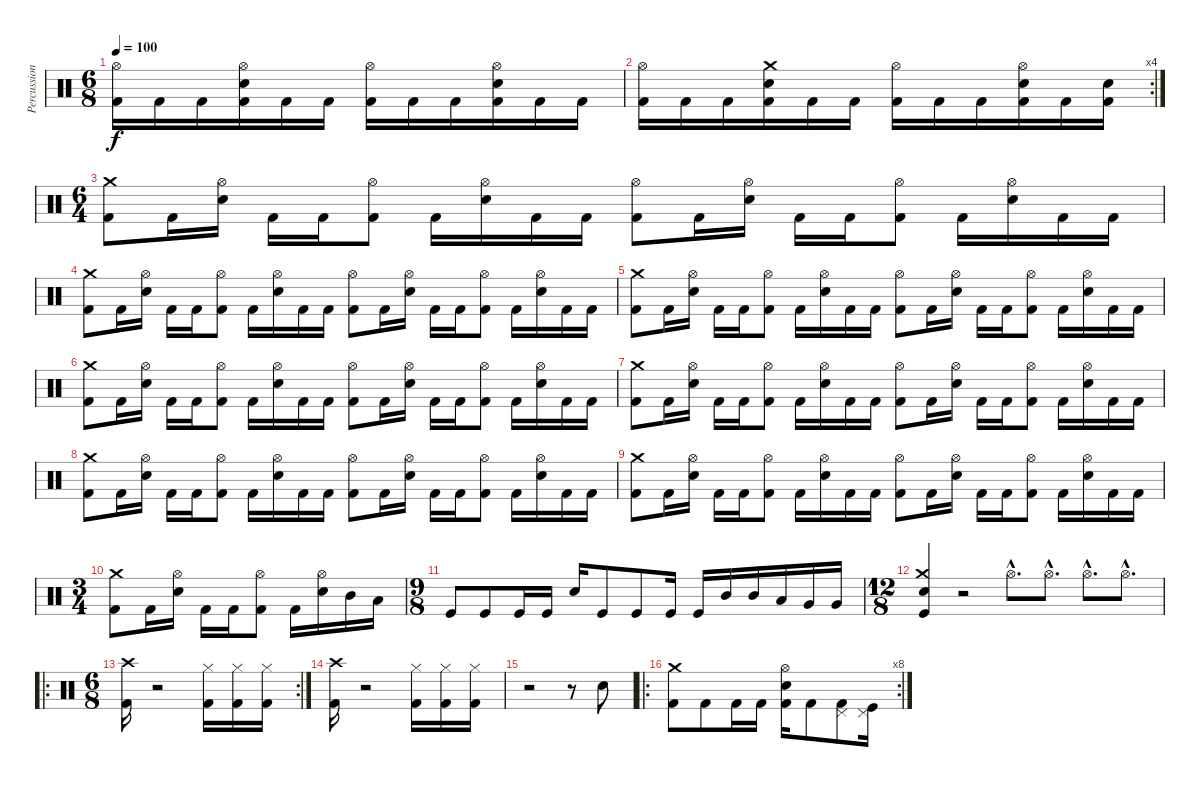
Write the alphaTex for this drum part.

\track ("Percussion" "Percussion") {instrument percussion}
\staff {score}
\articulation defaults
\ts (6 8)
\tempo 100
\clef neutral
\ks c
("Hi-Hat (open)" "Kick (hit) 2").16{dy f} "Kick (hit) 2".16 "Kick (hit) 2".16 ("Hi-Hat (open)" "Electric Snare (hit)" "Kick (hit) 2").16 "Kick (hit) 2".16 "Kick (hit) 2".16 ("Hi-Hat (open)" "Kick (hit) 2").16 "Kick (hit) 2".16 "Kick (hit) 2".16 ("Hi-Hat (open)" "Electric Snare (hit)" "Kick (hit) 2").16 "Kick (hit) 2".16 "Kick (hit) 2".16 |
\rc 4
("Hi-Hat (open)" "Kick (hit) 2").16 "Kick (hit) 2".16 "Kick (hit) 2".16 ("Crash medium (hit)" "Electric Snare (hit)" "Kick (hit) 2").16 "Kick (hit) 2".16 "Kick (hit) 2".16 ("Hi-Hat (open)" "Kick (hit) 2").16 "Kick (hit) 2".16 "Kick (hit) 2".16 ("Hi-Hat (open)" "Electric Snare (hit)" "Kick (hit) 2").16 "Kick (hit) 2".16 ("Electric Snare (hit)" "Kick (hit) 2").16 |
\ts (6 4)
("Crash medium (hit)" "Kick (hit) 2").8 "Kick (hit) 2".16 ("Hi-Hat (open)" "Electric Snare (hit)").16 "Kick (hit) 2".16 "Kick (hit) 2".16 ("Hi-Hat (open)" "Kick (hit) 2").8 "Kick (hit) 2".16 ("Hi-Hat (open)" "Electric Snare (hit)").16 "Kick (hit) 2".16 "Kick (hit) 2".16 ("Hi-Hat (open)" "Kick (hit) 2").8 "Kick (hit) 2".16 ("Hi-Hat (open)" "Electric Snare (hit)").16 "Kick (hit) 2".16 "Kick (hit) 2".16 ("Hi-Hat (open)" "Kick (hit) 2").8 "Kick (hit) 2".16 ("Hi-Hat (open)" "Electric Snare (hit)").16 "Kick (hit) 2".16 "Kick (hit) 2".16 |
("Crash medium (hit)" "Kick (hit) 2").8 "Kick (hit) 2".16 ("Hi-Hat (open)" "Electric Snare (hit)").16 "Kick (hit) 2".16 "Kick (hit) 2".16 ("Hi-Hat (open)" "Kick (hit) 2").8 "Kick (hit) 2".16 ("Hi-Hat (open)" "Electric Snare (hit)").16 "Kick (hit) 2".16 "Kick (hit) 2".16 ("Hi-Hat (open)" "Kick (hit) 2").8 "Kick (hit) 2".16 ("Hi-Hat (open)" "Electric Snare (hit)").16 "Kick (hit) 2".16 "Kick (hit) 2".16 ("Hi-Hat (open)" "Kick (hit) 2").8 "Kick (hit) 2".16 ("Hi-Hat (open)" "Electric Snare (hit)").16 "Kick (hit) 2".16 "Kick (hit) 2".16 |
("Crash medium (hit)" "Kick (hit) 2").8 "Kick (hit) 2".16 ("Hi-Hat (open)" "Electric Snare (hit)").16 "Kick (hit) 2".16 "Kick (hit) 2".16 ("Hi-Hat (open)" "Kick (hit) 2").8 "Kick (hit) 2".16 ("Hi-Hat (open)" "Electric Snare (hit)").16 "Kick (hit) 2".16 "Kick (hit) 2".16 ("Hi-Hat (open)" "Kick (hit) 2").8 "Kick (hit) 2".16 ("Hi-Hat (open)" "Electric Snare (hit)").16 "Kick (hit) 2".16 "Kick (hit) 2".16 ("Hi-Hat (open)" "Kick (hit) 2").8 "Kick (hit) 2".16 ("Hi-Hat (open)" "Electric Snare (hit)").16 "Kick (hit) 2".16 "Kick (hit) 2".16 |
("Crash medium (hit)" "Kick (hit) 2").8 "Kick (hit) 2".16 ("Hi-Hat (open)" "Electric Snare (hit)").16 "Kick (hit) 2".16 "Kick (hit) 2".16 ("Hi-Hat (open)" "Kick (hit) 2").8 "Kick (hit) 2".16 ("Hi-Hat (open)" "Electric Snare (hit)").16 "Kick (hit) 2".16 "Kick (hit) 2".16 ("Hi-Hat (open)" "Kick (hit) 2").8 "Kick (hit) 2".16 ("Hi-Hat (open)" "Electric Snare (hit)").16 "Kick (hit) 2".16 "Kick (hit) 2".16 ("Hi-Hat (open)" "Kick (hit) 2").8 "Kick (hit) 2".16 ("Hi-Hat (open)" "Electric Snare (hit)").16 "Kick (hit) 2".16 "Kick (hit) 2".16 |
("Crash medium (hit)" "Kick (hit) 2").8 "Kick (hit) 2".16 ("Hi-Hat (open)" "Electric Snare (hit)").16 "Kick (hit) 2".16 "Kick (hit) 2".16 ("Hi-Hat (open)" "Kick (hit) 2").8 "Kick (hit) 2".16 ("Hi-Hat (open)" "Electric Snare (hit)").16 "Kick (hit) 2".16 "Kick (hit) 2".16 ("Hi-Hat (open)" "Kick (hit) 2").8 "Kick (hit) 2".16 ("Hi-Hat (open)" "Electric Snare (hit)").16 "Kick (hit) 2".16 "Kick (hit) 2".16 ("Hi-Hat (open)" "Kick (hit) 2").8 "Kick (hit) 2".16 ("Hi-Hat (open)" "Electric Snare (hit)").16 "Kick (hit) 2".16 "Kick (hit) 2".16 |
("Crash medium (hit)" "Kick (hit) 2").8 "Kick (hit) 2".16 ("Hi-Hat (open)" "Electric Snare (hit)").16 "Kick (hit) 2".16 "Kick (hit) 2".16 ("Hi-Hat (open)" "Kick (hit) 2").8 "Kick (hit) 2".16 ("Hi-Hat (open)" "Electric Snare (hit)").16 "Kick (hit) 2".16 "Kick (hit) 2".16 ("Hi-Hat (open)" "Kick (hit) 2").8 "Kick (hit) 2".16 ("Hi-Hat (open)" "Electric Snare (hit)").16 "Kick (hit) 2".16 "Kick (hit) 2".16 ("Hi-Hat (open)" "Kick (hit) 2").8 "Kick (hit) 2".16 ("Hi-Hat (open)" "Electric Snare (hit)").16 "Kick (hit) 2".16 "Kick (hit) 2".16 |
("Crash medium (hit)" "Kick (hit) 2").8 "Kick (hit) 2".16 ("Hi-Hat (open)" "Electric Snare (hit)").16 "Kick (hit) 2".16 "Kick (hit) 2".16 ("Hi-Hat (open)" "Kick (hit) 2").8 "Kick (hit) 2".16 ("Hi-Hat (open)" "Electric Snare (hit)").16 "Kick (hit) 2".16 "Kick (hit) 2".16 ("Hi-Hat (open)" "Kick (hit) 2").8 "Kick (hit) 2".16 ("Hi-Hat (open)" "Electric Snare (hit)").16 "Kick (hit) 2".16 "Kick (hit) 2".16 ("Hi-Hat (open)" "Kick (hit) 2").8 "Kick (hit) 2".16 ("Hi-Hat (open)" "Electric Snare (hit)").16 "Kick (hit) 2".16 "Kick (hit) 2".16 |
\ts (3 4)
("Crash medium (hit)" "Kick (hit) 2").8 "Kick (hit) 2".16 ("Hi-Hat (open)" "Electric Snare (hit)").16 "Kick (hit) 2".16 "Kick (hit) 2".16 ("Hi-Hat (open)" "Kick (hit) 2").8 "Kick (hit) 2".16 ("Hi-Hat (open)" "Electric Snare (hit)").16 "Mid Tom (hit)".16 "Low Tom (hit)".16 |
\ts (9 8)
"Kick (hit)".8 "Kick (hit)".8 "Kick (hit)".16 "Kick (hit)".16 "Electric Snare (hit)".16 "Kick (hit)".8 "Kick (hit)".8 "Kick (hit)".16 "Kick (hit)".16 "Mid Tom (hit)".16 "Mid Tom (hit)".16 "Low Tom (hit)".16 "Very Low Tom (hit)".16 "Very Low Tom (hit)".16 |
\ts (12 8)
("Crash medium (hit)" "Electric Snare (hit)" "Kick (hit)").4 r.2 "Hi-Hat (open)"{hac}.8{d} "Hi-Hat (open)"{hac}.8{d} "Hi-Hat (open)"{hac}.8{d} "Hi-Hat (open)"{hac}.8{d} |
\ro
\rc 2
\ts (6 8)
("Crash high (hit)" "Kick (hit) 2").16 r.2 ("Hi-Hat (closed)" "Kick (hit) 2").16 ("Hi-Hat (closed)" "Kick (hit) 2").16 ("Hi-Hat (closed)" "Kick (hit) 2").16 |
("Crash high (hit)" "Kick (hit) 2").16 r.2 ("Hi-Hat (closed)" "Kick (hit) 2").16 ("Hi-Hat (closed)" "Kick (hit) 2").16 ("Hi-Hat (closed)" "Kick (hit) 2").16 |
r.2 r.8 "Electric Snare (hit)".8 |
\ro
\rc 8
("Crash medium (hit)" "Kick (hit) 2").8 "Kick (hit) 2".8 "Kick (hit) 2".16 "Kick (hit) 2".16 ("Hi-Hat (open)" "Electric Snare (hit)" "Kick (hit) 2").16 "Kick (hit) 2".8 ("Pedal Hi-Hat (hit)" "Kick (hit) 2").8 ("Pedal Hi-Hat (hit)" "Kick (hit)").16
